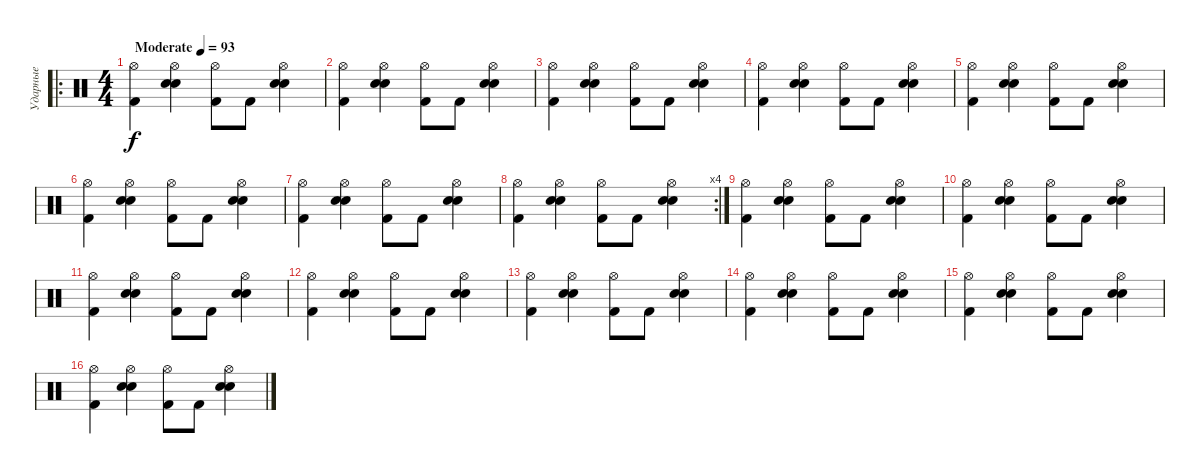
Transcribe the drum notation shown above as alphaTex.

\track ("Ударные" "Ударные") {instrument percussion}
\staff {score}
\articulation defaults
\ro
\ts (4 4)
\tempo (93 "Moderate")
\clef neutral
\ks c
("Hi-Hat (open)" "Kick (hit) 2").4{dy f} ("Hi-Hat (open)" "Snare (hit) 2" "Electric Snare (hit)").4 ("Hi-Hat (open)" "Kick (hit) 2").8 "Kick (hit) 2".8 ("Hi-Hat (open)" "Snare (hit) 2" "Electric Snare (hit)").4 |
("Hi-Hat (open)" "Kick (hit) 2").4 ("Hi-Hat (open)" "Snare (hit) 2" "Electric Snare (hit)").4 ("Hi-Hat (open)" "Kick (hit) 2").8 "Kick (hit) 2".8 ("Hi-Hat (open)" "Snare (hit) 2" "Electric Snare (hit)").4 |
("Hi-Hat (open)" "Kick (hit) 2").4 ("Hi-Hat (open)" "Snare (hit) 2" "Electric Snare (hit)").4 ("Hi-Hat (open)" "Kick (hit) 2").8 "Kick (hit) 2".8 ("Hi-Hat (open)" "Snare (hit) 2" "Electric Snare (hit)").4 |
("Hi-Hat (open)" "Kick (hit) 2").4 ("Hi-Hat (open)" "Snare (hit) 2" "Electric Snare (hit)").4 ("Hi-Hat (open)" "Kick (hit) 2").8 "Kick (hit) 2".8 ("Hi-Hat (open)" "Snare (hit) 2" "Electric Snare (hit)").4 |
("Hi-Hat (open)" "Kick (hit) 2").4 ("Hi-Hat (open)" "Snare (hit) 2" "Electric Snare (hit)").4 ("Hi-Hat (open)" "Kick (hit) 2").8 "Kick (hit) 2".8 ("Hi-Hat (open)" "Snare (hit) 2" "Electric Snare (hit)").4 |
("Hi-Hat (open)" "Kick (hit) 2").4 ("Hi-Hat (open)" "Snare (hit) 2" "Electric Snare (hit)").4 ("Hi-Hat (open)" "Kick (hit) 2").8 "Kick (hit) 2".8 ("Hi-Hat (open)" "Snare (hit) 2" "Electric Snare (hit)").4 |
("Hi-Hat (open)" "Kick (hit) 2").4 ("Hi-Hat (open)" "Snare (hit) 2" "Electric Snare (hit)").4 ("Hi-Hat (open)" "Kick (hit) 2").8 "Kick (hit) 2".8 ("Hi-Hat (open)" "Snare (hit) 2" "Electric Snare (hit)").4 |
\rc 4
("Hi-Hat (open)" "Kick (hit) 2").4 ("Hi-Hat (open)" "Snare (hit) 2" "Electric Snare (hit)").4 ("Hi-Hat (open)" "Kick (hit) 2").8 "Kick (hit) 2".8 ("Hi-Hat (open)" "Snare (hit) 2" "Electric Snare (hit)").4 |
("Hi-Hat (open)" "Kick (hit) 2").4 ("Hi-Hat (open)" "Snare (hit) 2" "Electric Snare (hit)").4 ("Hi-Hat (open)" "Kick (hit) 2").8 "Kick (hit) 2".8 ("Hi-Hat (open)" "Snare (hit) 2" "Electric Snare (hit)").4 |
("Hi-Hat (open)" "Kick (hit) 2").4 ("Hi-Hat (open)" "Snare (hit) 2" "Electric Snare (hit)").4 ("Hi-Hat (open)" "Kick (hit) 2").8 "Kick (hit) 2".8 ("Hi-Hat (open)" "Snare (hit) 2" "Electric Snare (hit)").4 |
("Hi-Hat (open)" "Kick (hit) 2").4 ("Hi-Hat (open)" "Snare (hit) 2" "Electric Snare (hit)").4 ("Hi-Hat (open)" "Kick (hit) 2").8 "Kick (hit) 2".8 ("Hi-Hat (open)" "Snare (hit) 2" "Electric Snare (hit)").4 |
("Hi-Hat (open)" "Kick (hit) 2").4 ("Hi-Hat (open)" "Snare (hit) 2" "Electric Snare (hit)").4 ("Hi-Hat (open)" "Kick (hit) 2").8 "Kick (hit) 2".8 ("Hi-Hat (open)" "Snare (hit) 2" "Electric Snare (hit)").4 |
("Hi-Hat (open)" "Kick (hit) 2").4 ("Hi-Hat (open)" "Snare (hit) 2" "Electric Snare (hit)").4 ("Hi-Hat (open)" "Kick (hit) 2").8 "Kick (hit) 2".8 ("Hi-Hat (open)" "Snare (hit) 2" "Electric Snare (hit)").4 |
("Hi-Hat (open)" "Kick (hit) 2").4 ("Hi-Hat (open)" "Snare (hit) 2" "Electric Snare (hit)").4 ("Hi-Hat (open)" "Kick (hit) 2").8 "Kick (hit) 2".8 ("Hi-Hat (open)" "Snare (hit) 2" "Electric Snare (hit)").4 |
("Hi-Hat (open)" "Kick (hit) 2").4 ("Hi-Hat (open)" "Snare (hit) 2" "Electric Snare (hit)").4 ("Hi-Hat (open)" "Kick (hit) 2").8 "Kick (hit) 2".8 ("Hi-Hat (open)" "Snare (hit) 2" "Electric Snare (hit)").4 |
("Hi-Hat (open)" "Kick (hit) 2").4 ("Hi-Hat (open)" "Snare (hit) 2" "Electric Snare (hit)").4 ("Hi-Hat (open)" "Kick (hit) 2").8 "Kick (hit) 2".8 ("Hi-Hat (open)" "Snare (hit) 2" "Electric Snare (hit)").4
